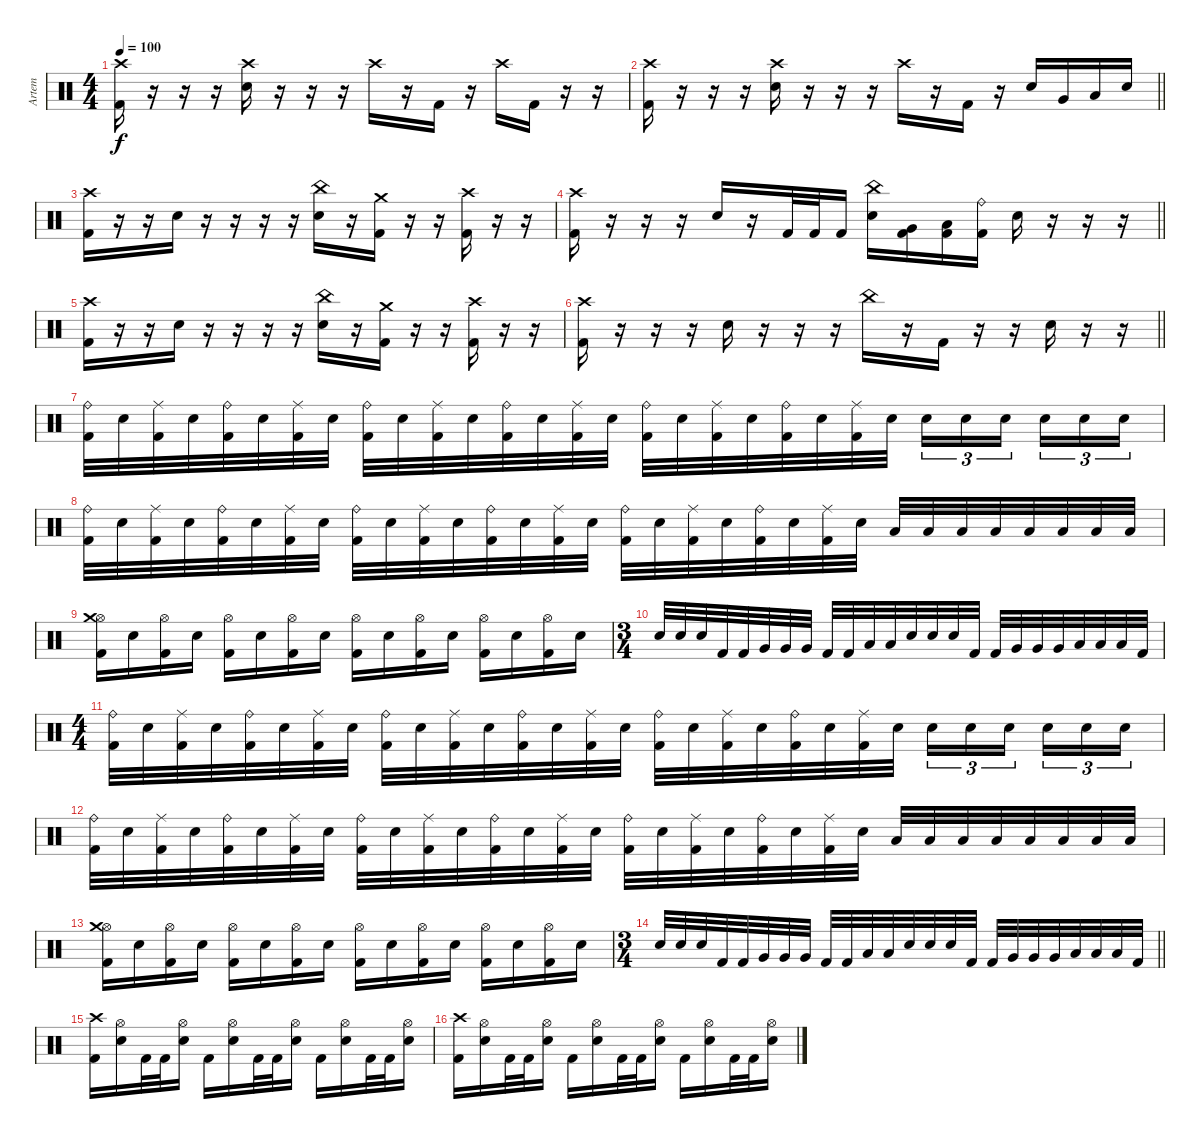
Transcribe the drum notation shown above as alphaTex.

\track ("Artem" "Artem") {instrument percussion}
\staff {score}
\articulation defaults
\ts (4 4)
\tempo 100
\clef neutral
\ks c
("Crash high (hit)" "Kick (hit) 2").16{dy f} r.16 r.16 r.16 ("Crash high (hit)" "Snare (hit) 2").16 r.16 r.16 r.16 "Crash high (hit)".16 r.16 "Kick (hit) 2".16 r.16 "Crash high (hit)".16 "Kick (hit) 2".16 r.16 r.16 |
\barLineRight lightlight
("Crash high (hit)" "Kick (hit) 2").16 r.16 r.16 r.16 ("Crash high (hit)" "Snare (hit) 2").16 r.16 r.16 r.16 "Crash high (hit)".16 r.16 "Kick (hit) 2".16 r.16 "Electric Snare (hit)".16 "Very Low Tom (hit)".16 "Low Floor Tom (hit)".16 "Electric Snare (hit)".16 |
\section ("" "")
("Crash high (hit)" "Kick (hit) 2").16 r.16 r.16 "Snare (hit) 2".16 r.16 r.16 r.16 r.16 ("China (hit)" "Electric Snare (hit)").16 r.16 ("Kick (hit) 2" "Crash medium (hit)").16 r.16 r.16 ("Kick (hit) 2" "Crash high (hit)").16 r.16 r.16 |
\barLineRight lightlight
("Crash high (hit)" "Kick (hit) 2").16 r.16 r.16 r.16 "Snare (hit) 2".16 r.16 "Kick (hit) 2".32 "Kick (hit) 2".32 "Kick (hit) 2".16 ("Electric Snare (hit)" "China (hit)").16 ("Kick (hit) 2" "Very Low Tom (hit)").16 ("Kick (hit) 2" "Low Floor Tom (hit)").16 ("Kick (hit) 2" "Ride (bell)").16 "Snare (hit) 2".16 r.16 r.16 r.16 |
\section ("" "")
("Crash high (hit)" "Kick (hit) 2").16 r.16 r.16 "Snare (hit) 2".16 r.16 r.16 r.16 r.16 ("China (hit)" "Electric Snare (hit)").16 r.16 ("Kick (hit) 2" "Crash medium (hit)").16 r.16 r.16 ("Kick (hit) 2" "Crash high (hit)").16 r.16 r.16 |
\barLineRight lightlight
("Crash high (hit)" "Kick (hit) 2").16 r.16 r.16 r.16 "Snare (hit) 2".16 r.16 r.16 r.16 "China (hit)".16 r.16 "Kick (hit) 2".16 r.16 r.16 "Snare (hit) 2".16 r.16 r.16 |
\section ("" "")
("Kick (hit) 2" "Ride (bell)").32 "Snare (hit) 2".32 ("Kick (hit) 2" "Ride (middle)").32 "Snare (hit) 2".32 ("Kick (hit) 2" "Ride (bell)").32 "Snare (hit) 2".32 ("Kick (hit) 2" "Ride (middle)").32 "Snare (hit) 2".32 ("Kick (hit) 2" "Ride (bell)").32 "Snare (hit) 2".32 ("Kick (hit) 2" "Ride (middle)").32 "Snare (hit) 2".32 ("Kick (hit) 2" "Ride (bell)").32 "Snare (hit) 2".32 ("Kick (hit) 2" "Ride (middle)").32 "Snare (hit) 2".32 ("Kick (hit) 2" "Ride (bell)").32 "Snare (hit) 2".32 ("Kick (hit) 2" "Ride (middle)").32 "Snare (hit) 2".32 ("Kick (hit) 2" "Ride (bell)").32 "Snare (hit) 2".32 ("Kick (hit) 2" "Ride (middle)").32 "Snare (hit) 2".32 "Snare (hit) 2".16{tu (3 2)} "Snare (hit) 2".16{tu (3 2)} "Snare (hit) 2".16{tu (3 2) beam splitsecondary} "Snare (hit) 2".16{tu (3 2)} "Snare (hit) 2".16{tu (3 2)} "Snare (hit) 2".16{tu (3 2)} |
("Kick (hit) 2" "Ride (bell)").32 "Snare (hit) 2".32 ("Kick (hit) 2" "Ride (middle)").32 "Snare (hit) 2".32 ("Kick (hit) 2" "Ride (bell)").32 "Snare (hit) 2".32 ("Kick (hit) 2" "Ride (middle)").32 "Snare (hit) 2".32 ("Kick (hit) 2" "Ride (bell)").32 "Snare (hit) 2".32 ("Kick (hit) 2" "Ride (middle)").32 "Snare (hit) 2".32 ("Kick (hit) 2" "Ride (bell)").32 "Snare (hit) 2".32 ("Kick (hit) 2" "Ride (middle)").32 "Snare (hit) 2".32 ("Kick (hit) 2" "Ride (bell)").32 "Snare (hit) 2".32 ("Kick (hit) 2" "Ride (middle)").32 "Snare (hit) 2".32 ("Kick (hit) 2" "Ride (bell)").32 "Snare (hit) 2".32 ("Kick (hit) 2" "Ride (middle)").32 "Snare (hit) 2".32 "Low Tom (hit)".32 "Low Tom (hit)".32 "Low Tom (hit)".32 "Low Floor Tom (hit)".32 "Low Floor Tom (hit)".32 "Low Floor Tom (hit)".32 "Low Floor Tom (hit)".32 "Low Floor Tom (hit)".32 |
("Kick (hit) 2" "Hi-Hat (open)" "Crash medium (hit)").16 "Snare (hit) 2".16 ("Kick (hit) 2" "Hi-Hat (open)").16 "Snare (hit) 2".16 ("Kick (hit) 2" "Hi-Hat (open)").16 "Snare (hit) 2".16 ("Kick (hit) 2" "Hi-Hat (open)").16 "Snare (hit) 2".16 ("Kick (hit) 2" "Hi-Hat (open)").16 "Snare (hit) 2".16 ("Kick (hit) 2" "Hi-Hat (open)").16 "Snare (hit) 2".16 ("Kick (hit) 2" "Hi-Hat (open)").16 "Snare (hit) 2".16 ("Kick (hit) 2" "Hi-Hat (open)").16 "Snare (hit) 2".16 |
\ts (3 4)
"Electric Snare (hit)".32 "Electric Snare (hit)".32 "Electric Snare (hit)".32 "Kick (hit) 2".32 "Kick (hit) 2".32 "Very Low Tom (hit)".32 "Very Low Tom (hit)".32 "Very Low Tom (hit)".32 "Kick (hit) 2".32 "Kick (hit) 2".32 "Low Floor Tom (hit)".32 "Low Floor Tom (hit)".32 "Electric Snare (hit)".32 "Electric Snare (hit)".32 "Electric Snare (hit)".32 "Kick (hit) 2".32 "Kick (hit) 2".32 "Very Low Tom (hit)".32 "Very Low Tom (hit)".32 "Very Low Tom (hit)".32 "Low Floor Tom (hit)".32 "Low Floor Tom (hit)".32 "Low Floor Tom (hit)".32 "Kick (hit) 2".32 |
\ts (4 4)
("Kick (hit) 2" "Ride (bell)").32 "Snare (hit) 2".32 ("Kick (hit) 2" "Ride (middle)").32 "Snare (hit) 2".32 ("Kick (hit) 2" "Ride (bell)").32 "Snare (hit) 2".32 ("Kick (hit) 2" "Ride (middle)").32 "Snare (hit) 2".32 ("Kick (hit) 2" "Ride (bell)").32 "Snare (hit) 2".32 ("Kick (hit) 2" "Ride (middle)").32 "Snare (hit) 2".32 ("Kick (hit) 2" "Ride (bell)").32 "Snare (hit) 2".32 ("Kick (hit) 2" "Ride (middle)").32 "Snare (hit) 2".32 ("Kick (hit) 2" "Ride (bell)").32 "Snare (hit) 2".32 ("Kick (hit) 2" "Ride (middle)").32 "Snare (hit) 2".32 ("Kick (hit) 2" "Ride (bell)").32 "Snare (hit) 2".32 ("Kick (hit) 2" "Ride (middle)").32 "Snare (hit) 2".32 "Snare (hit) 2".16{tu (3 2)} "Snare (hit) 2".16{tu (3 2)} "Snare (hit) 2".16{tu (3 2) beam splitsecondary} "Snare (hit) 2".16{tu (3 2)} "Snare (hit) 2".16{tu (3 2)} "Snare (hit) 2".16{tu (3 2)} |
("Kick (hit) 2" "Ride (bell)").32 "Snare (hit) 2".32 ("Kick (hit) 2" "Ride (middle)").32 "Snare (hit) 2".32 ("Kick (hit) 2" "Ride (bell)").32 "Snare (hit) 2".32 ("Kick (hit) 2" "Ride (middle)").32 "Snare (hit) 2".32 ("Kick (hit) 2" "Ride (bell)").32 "Snare (hit) 2".32 ("Kick (hit) 2" "Ride (middle)").32 "Snare (hit) 2".32 ("Kick (hit) 2" "Ride (bell)").32 "Snare (hit) 2".32 ("Kick (hit) 2" "Ride (middle)").32 "Snare (hit) 2".32 ("Kick (hit) 2" "Ride (bell)").32 "Snare (hit) 2".32 ("Kick (hit) 2" "Ride (middle)").32 "Snare (hit) 2".32 ("Kick (hit) 2" "Ride (bell)").32 "Snare (hit) 2".32 ("Kick (hit) 2" "Ride (middle)").32 "Snare (hit) 2".32 "Low Tom (hit)".32 "Low Tom (hit)".32 "Low Tom (hit)".32 "Low Floor Tom (hit)".32 "Low Floor Tom (hit)".32 "Low Floor Tom (hit)".32 "Low Floor Tom (hit)".32 "Low Floor Tom (hit)".32 |
("Kick (hit) 2" "Hi-Hat (open)" "Crash medium (hit)").16 "Snare (hit) 2".16 ("Kick (hit) 2" "Hi-Hat (open)").16 "Snare (hit) 2".16 ("Kick (hit) 2" "Hi-Hat (open)").16 "Snare (hit) 2".16 ("Kick (hit) 2" "Hi-Hat (open)").16 "Snare (hit) 2".16 ("Kick (hit) 2" "Hi-Hat (open)").16 "Snare (hit) 2".16 ("Kick (hit) 2" "Hi-Hat (open)").16 "Snare (hit) 2".16 ("Kick (hit) 2" "Hi-Hat (open)").16 "Snare (hit) 2".16 ("Kick (hit) 2" "Hi-Hat (open)").16 "Snare (hit) 2".16 |
\ts (3 4)
\barLineRight lightlight "Electric Snare (hit)".32 "Electric Snare (hit)".32 "Electric Snare (hit)".32 "Kick (hit) 2".32 "Kick (hit) 2".32 "Very Low Tom (hit)".32 "Very Low Tom (hit)".32 "Very Low Tom (hit)".32 "Kick (hit) 2".32 "Kick (hit) 2".32 "Low Floor Tom (hit)".32 "Low Floor Tom (hit)".32 "Electric Snare (hit)".32 "Electric Snare (hit)".32 "Electric Snare (hit)".32 "Kick (hit) 2".32 "Kick (hit) 2".32 "Very Low Tom (hit)".32 "Very Low Tom (hit)".32 "Very Low Tom (hit)".32 "Low Floor Tom (hit)".32 "Low Floor Tom (hit)".32 "Low Floor Tom (hit)".32 "Kick (hit) 2".32
|
\section ("" "")
("Kick (hit) 2" "Crash high (hit)").16 ("Snare (hit) 2" "Hi-Hat (open)").16 "Kick (hit) 2".32 "Kick (hit) 2".32 ("Snare (hit) 2" "Hi-Hat (open)").16 "Kick (hit) 2".16 ("Snare (hit) 2" "Hi-Hat (open)").16 "Kick (hit) 2".32 "Kick (hit) 2".32 ("Snare (hit) 2" "Hi-Hat (open)").16 "Kick (hit) 2".16 ("Snare (hit) 2" "Hi-Hat (open)").16 "Kick (hit) 2".32 "Kick (hit) 2".32 ("Snare (hit) 2" "Hi-Hat (open)").16 |
("Kick (hit) 2" "Crash high (hit)").16 ("Snare (hit) 2" "Hi-Hat (open)").16 "Kick (hit) 2".32 "Kick (hit) 2".32 ("Snare (hit) 2" "Hi-Hat (open)").16 "Kick (hit) 2".16 ("Snare (hit) 2" "Hi-Hat (open)").16 "Kick (hit) 2".32 "Kick (hit) 2".32 ("Snare (hit) 2" "Hi-Hat (open)").16 "Kick (hit) 2".16 ("Snare (hit) 2" "Hi-Hat (open)").16 "Kick (hit) 2".32 "Kick (hit) 2".32 ("Snare (hit) 2" "Hi-Hat (open)").16
